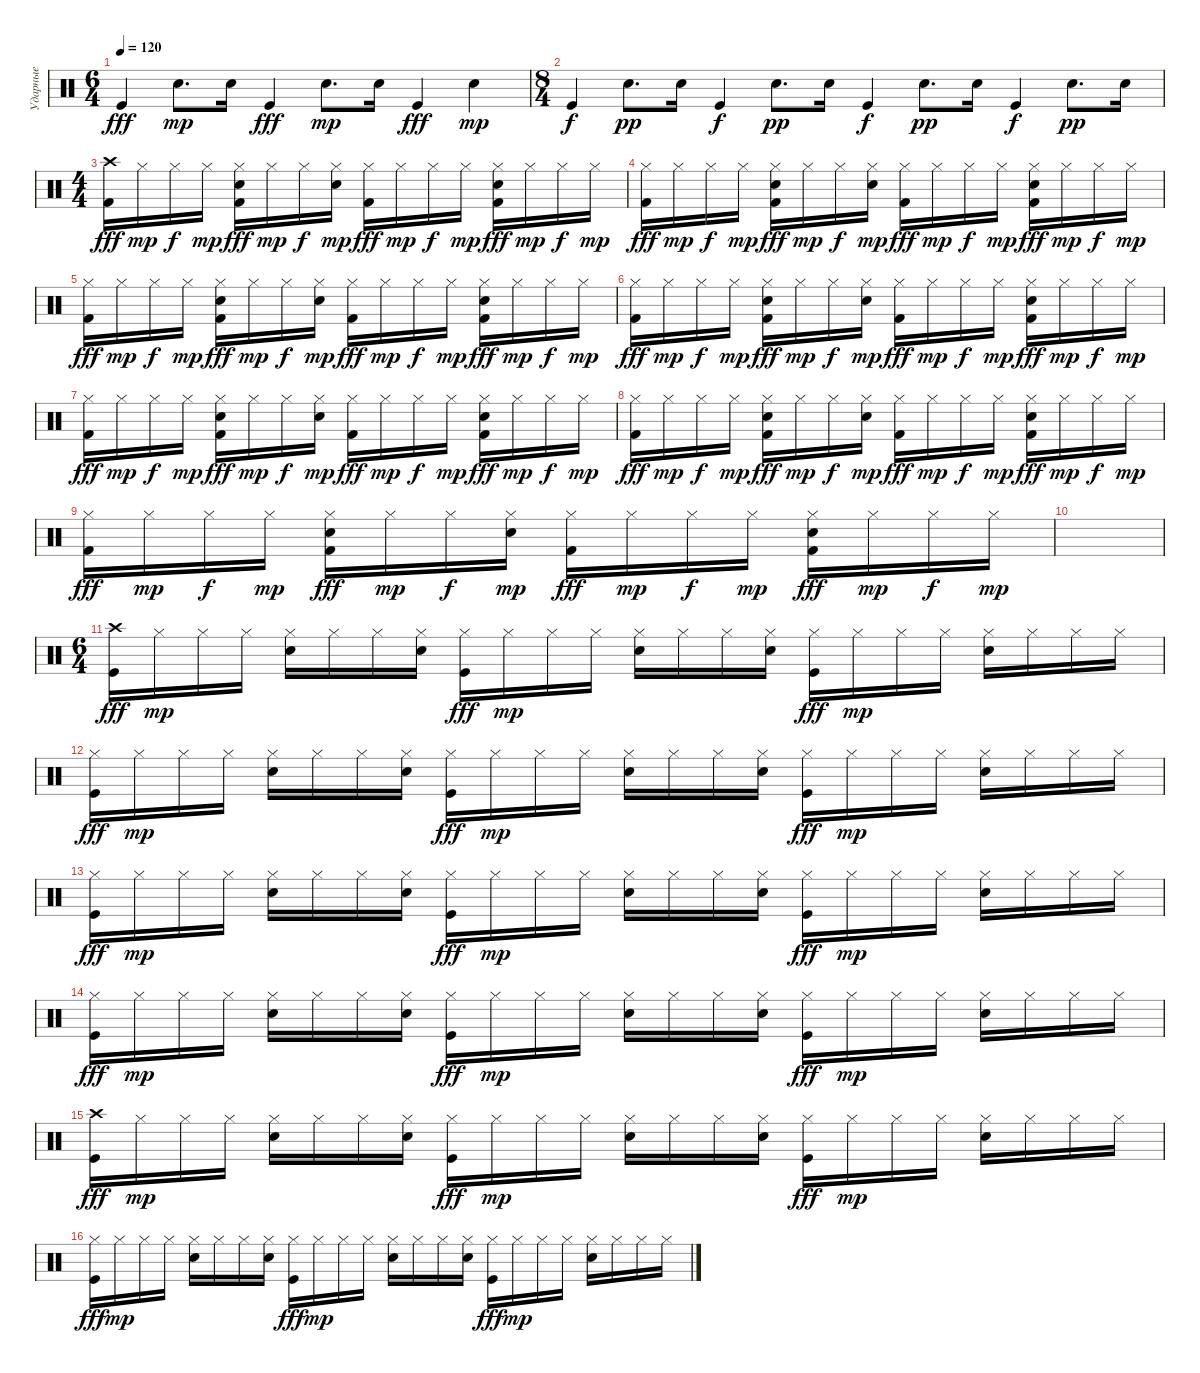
\track ("Ударные" "Ударные") {instrument percussion}
\staff {score}
\articulation defaults
\ts (6 4)
\tempo 120
\clef neutral
\ks c "Kick (hit)".4{dy fff} "Snare (hit) 2".8{d dy mp} "Snare (hit) 2".16 "Kick (hit)".4{dy fff} "Snare (hit) 2".8{d dy mp} "Snare (hit) 2".16 "Kick (hit)".4{dy fff} "Snare (hit) 2".4{dy mp}
|
\ts (8 4)
"Kick (hit)".4{dy f} "Snare (hit) 2".8{d dy pp} "Snare (hit) 2".16 "Kick (hit)".4{dy f} "Snare (hit) 2".8{d dy pp} "Snare (hit) 2".16 "Kick (hit)".4{dy f} "Snare (hit) 2".8{d dy pp} "Snare (hit) 2".16 "Kick (hit)".4{dy f} "Snare (hit) 2".8{d dy pp} "Snare (hit) 2".16 |
\ts (4 4)
("Crash high (hit)" "Kick (hit) 2").16{dy fff} "Hi-Hat (closed)".16{dy mp} "Hi-Hat (closed)".16{dy f} "Hi-Hat (closed)".16{dy mp} ("Hi-Hat (closed)" "Snare (hit) 2" "Kick (hit) 2").16{dy fff} "Hi-Hat (closed)".16{dy mp} "Hi-Hat (closed)".16{dy f} ("Hi-Hat (closed)" "Snare (hit) 2").16{dy mp} ("Hi-Hat (closed)" "Kick (hit) 2").16{dy fff} "Hi-Hat (closed)".16{dy mp} "Hi-Hat (closed)".16{dy f} "Hi-Hat (closed)".16{dy mp} ("Hi-Hat (closed)" "Snare (hit) 2" "Kick (hit) 2").16{dy fff} "Hi-Hat (closed)".16{dy mp} "Hi-Hat (closed)".16{dy f} "Hi-Hat (closed)".16{dy mp} |
("Hi-Hat (closed)" "Kick (hit) 2").16{dy fff} "Hi-Hat (closed)".16{dy mp} "Hi-Hat (closed)".16{dy f} "Hi-Hat (closed)".16{dy mp} ("Hi-Hat (closed)" "Snare (hit) 2" "Kick (hit) 2").16{dy fff} "Hi-Hat (closed)".16{dy mp} "Hi-Hat (closed)".16{dy f} ("Hi-Hat (closed)" "Snare (hit) 2").16{dy mp} ("Hi-Hat (closed)" "Kick (hit) 2").16{dy fff} "Hi-Hat (closed)".16{dy mp} "Hi-Hat (closed)".16{dy f} "Hi-Hat (closed)".16{dy mp} ("Hi-Hat (closed)" "Snare (hit) 2" "Kick (hit) 2").16{dy fff} "Hi-Hat (closed)".16{dy mp} "Hi-Hat (closed)".16{dy f} "Hi-Hat (closed)".16{dy mp} |
("Hi-Hat (closed)" "Kick (hit) 2").16{dy fff} "Hi-Hat (closed)".16{dy mp} "Hi-Hat (closed)".16{dy f} "Hi-Hat (closed)".16{dy mp} ("Hi-Hat (closed)" "Snare (hit) 2" "Kick (hit) 2").16{dy fff} "Hi-Hat (closed)".16{dy mp} "Hi-Hat (closed)".16{dy f} ("Hi-Hat (closed)" "Snare (hit) 2").16{dy mp} ("Hi-Hat (closed)" "Kick (hit) 2").16{dy fff} "Hi-Hat (closed)".16{dy mp} "Hi-Hat (closed)".16{dy f} "Hi-Hat (closed)".16{dy mp} ("Hi-Hat (closed)" "Snare (hit) 2" "Kick (hit) 2").16{dy fff} "Hi-Hat (closed)".16{dy mp} "Hi-Hat (closed)".16{dy f} "Hi-Hat (closed)".16{dy mp} |
("Hi-Hat (closed)" "Kick (hit) 2").16{dy fff} "Hi-Hat (closed)".16{dy mp} "Hi-Hat (closed)".16{dy f} "Hi-Hat (closed)".16{dy mp} ("Hi-Hat (closed)" "Snare (hit) 2" "Kick (hit) 2").16{dy fff} "Hi-Hat (closed)".16{dy mp} "Hi-Hat (closed)".16{dy f} ("Hi-Hat (closed)" "Snare (hit) 2").16{dy mp} ("Hi-Hat (closed)" "Kick (hit) 2").16{dy fff} "Hi-Hat (closed)".16{dy mp} "Hi-Hat (closed)".16{dy f} "Hi-Hat (closed)".16{dy mp} ("Hi-Hat (closed)" "Snare (hit) 2" "Kick (hit) 2").16{dy fff} "Hi-Hat (closed)".16{dy mp} "Hi-Hat (closed)".16{dy f} "Hi-Hat (closed)".16{dy mp} |
("Hi-Hat (closed)" "Kick (hit) 2").16{dy fff} "Hi-Hat (closed)".16{dy mp} "Hi-Hat (closed)".16{dy f} "Hi-Hat (closed)".16{dy mp} ("Hi-Hat (closed)" "Snare (hit) 2" "Kick (hit) 2").16{dy fff} "Hi-Hat (closed)".16{dy mp} "Hi-Hat (closed)".16{dy f} ("Hi-Hat (closed)" "Snare (hit) 2").16{dy mp} ("Hi-Hat (closed)" "Kick (hit) 2").16{dy fff} "Hi-Hat (closed)".16{dy mp} "Hi-Hat (closed)".16{dy f} "Hi-Hat (closed)".16{dy mp} ("Hi-Hat (closed)" "Snare (hit) 2" "Kick (hit) 2").16{dy fff} "Hi-Hat (closed)".16{dy mp} "Hi-Hat (closed)".16{dy f} "Hi-Hat (closed)".16{dy mp} |
("Hi-Hat (closed)" "Kick (hit) 2").16{dy fff} "Hi-Hat (closed)".16{dy mp} "Hi-Hat (closed)".16{dy f} "Hi-Hat (closed)".16{dy mp} ("Hi-Hat (closed)" "Snare (hit) 2" "Kick (hit) 2").16{dy fff} "Hi-Hat (closed)".16{dy mp} "Hi-Hat (closed)".16{dy f} ("Hi-Hat (closed)" "Snare (hit) 2").16{dy mp} ("Hi-Hat (closed)" "Kick (hit) 2").16{dy fff} "Hi-Hat (closed)".16{dy mp} "Hi-Hat (closed)".16{dy f} "Hi-Hat (closed)".16{dy mp} ("Hi-Hat (closed)" "Snare (hit) 2" "Kick (hit) 2").16{dy fff} "Hi-Hat (closed)".16{dy mp} "Hi-Hat (closed)".16{dy f} "Hi-Hat (closed)".16{dy mp} |
("Hi-Hat (closed)" "Kick (hit) 2").16{dy fff} "Hi-Hat (closed)".16{dy mp} "Hi-Hat (closed)".16{dy f} "Hi-Hat (closed)".16{dy mp} ("Hi-Hat (closed)" "Snare (hit) 2" "Kick (hit) 2").16{dy fff} "Hi-Hat (closed)".16{dy mp} "Hi-Hat (closed)".16{dy f} ("Hi-Hat (closed)" "Snare (hit) 2").16{dy mp} ("Hi-Hat (closed)" "Kick (hit) 2").16{dy fff} "Hi-Hat (closed)".16{dy mp} "Hi-Hat (closed)".16{dy f} "Hi-Hat (closed)".16{dy mp} ("Hi-Hat (closed)" "Snare (hit) 2" "Kick (hit) 2").16{dy fff} "Hi-Hat (closed)".16{dy mp} "Hi-Hat (closed)".16{dy f} "Hi-Hat (closed)".16{dy mp} |
|
\ts (6 4)
("Crash high (hit)" "Kick (hit)").16{dy fff} "Hi-Hat (closed)".16{dy mp} "Hi-Hat (closed)".16 "Hi-Hat (closed)".16 ("Hi-Hat (closed)" "Snare (hit) 2").16 "Hi-Hat (closed)".16 "Hi-Hat (closed)".16 ("Hi-Hat (closed)" "Snare (hit) 2").16 ("Hi-Hat (closed)" "Kick (hit)").16{dy fff} "Hi-Hat (closed)".16{dy mp} "Hi-Hat (closed)".16 "Hi-Hat (closed)".16 ("Hi-Hat (closed)" "Snare (hit) 2").16 "Hi-Hat (closed)".16 "Hi-Hat (closed)".16 ("Hi-Hat (closed)" "Snare (hit) 2").16 ("Hi-Hat (closed)" "Kick (hit)").16{dy fff} "Hi-Hat (closed)".16{dy mp} "Hi-Hat (closed)".16 "Hi-Hat (closed)".16 ("Hi-Hat (closed)" "Snare (hit) 2").16 "Hi-Hat (closed)".16 "Hi-Hat (closed)".16 "Hi-Hat (closed)".16 |
("Hi-Hat (closed)" "Kick (hit)").16{dy fff} "Hi-Hat (closed)".16{dy mp} "Hi-Hat (closed)".16 "Hi-Hat (closed)".16 ("Hi-Hat (closed)" "Snare (hit) 2").16 "Hi-Hat (closed)".16 "Hi-Hat (closed)".16 ("Hi-Hat (closed)" "Snare (hit) 2").16 ("Hi-Hat (closed)" "Kick (hit)").16{dy fff} "Hi-Hat (closed)".16{dy mp} "Hi-Hat (closed)".16 "Hi-Hat (closed)".16 ("Hi-Hat (closed)" "Snare (hit) 2").16 "Hi-Hat (closed)".16 "Hi-Hat (closed)".16 ("Hi-Hat (closed)" "Snare (hit) 2").16 ("Hi-Hat (closed)" "Kick (hit)").16{dy fff} "Hi-Hat (closed)".16{dy mp} "Hi-Hat (closed)".16 "Hi-Hat (closed)".16 ("Hi-Hat (closed)" "Snare (hit) 2").16 "Hi-Hat (closed)".16 "Hi-Hat (closed)".16 "Hi-Hat (closed)".16 |
("Hi-Hat (closed)" "Kick (hit)").16{dy fff} "Hi-Hat (closed)".16{dy mp} "Hi-Hat (closed)".16 "Hi-Hat (closed)".16 ("Hi-Hat (closed)" "Snare (hit) 2").16 "Hi-Hat (closed)".16 "Hi-Hat (closed)".16 ("Hi-Hat (closed)" "Snare (hit) 2").16 ("Hi-Hat (closed)" "Kick (hit)").16{dy fff} "Hi-Hat (closed)".16{dy mp} "Hi-Hat (closed)".16 "Hi-Hat (closed)".16 ("Hi-Hat (closed)" "Snare (hit) 2").16 "Hi-Hat (closed)".16 "Hi-Hat (closed)".16 ("Hi-Hat (closed)" "Snare (hit) 2").16 ("Hi-Hat (closed)" "Kick (hit)").16{dy fff} "Hi-Hat (closed)".16{dy mp} "Hi-Hat (closed)".16 "Hi-Hat (closed)".16 ("Hi-Hat (closed)" "Snare (hit) 2").16 "Hi-Hat (closed)".16 "Hi-Hat (closed)".16 "Hi-Hat (closed)".16 |
("Hi-Hat (closed)" "Kick (hit)").16{dy fff} "Hi-Hat (closed)".16{dy mp} "Hi-Hat (closed)".16 "Hi-Hat (closed)".16 ("Hi-Hat (closed)" "Snare (hit) 2").16 "Hi-Hat (closed)".16 "Hi-Hat (closed)".16 ("Hi-Hat (closed)" "Snare (hit) 2").16 ("Hi-Hat (closed)" "Kick (hit)").16{dy fff} "Hi-Hat (closed)".16{dy mp} "Hi-Hat (closed)".16 "Hi-Hat (closed)".16 ("Hi-Hat (closed)" "Snare (hit) 2").16 "Hi-Hat (closed)".16 "Hi-Hat (closed)".16 ("Hi-Hat (closed)" "Snare (hit) 2").16 ("Hi-Hat (closed)" "Kick (hit)").16{dy fff} "Hi-Hat (closed)".16{dy mp} "Hi-Hat (closed)".16 "Hi-Hat (closed)".16 ("Hi-Hat (closed)" "Snare (hit) 2").16 "Hi-Hat (closed)".16 "Hi-Hat (closed)".16 "Hi-Hat (closed)".16 |
("Crash high (hit)" "Kick (hit)").16{dy fff} "Hi-Hat (closed)".16{dy mp} "Hi-Hat (closed)".16 "Hi-Hat (closed)".16 ("Hi-Hat (closed)" "Snare (hit) 2").16 "Hi-Hat (closed)".16 "Hi-Hat (closed)".16 ("Hi-Hat (closed)" "Snare (hit) 2").16 ("Hi-Hat (closed)" "Kick (hit)").16{dy fff} "Hi-Hat (closed)".16{dy mp} "Hi-Hat (closed)".16 "Hi-Hat (closed)".16 ("Hi-Hat (closed)" "Snare (hit) 2").16 "Hi-Hat (closed)".16 "Hi-Hat (closed)".16 ("Hi-Hat (closed)" "Snare (hit) 2").16 ("Hi-Hat (closed)" "Kick (hit)").16{dy fff} "Hi-Hat (closed)".16{dy mp} "Hi-Hat (closed)".16 "Hi-Hat (closed)".16 ("Hi-Hat (closed)" "Snare (hit) 2").16 "Hi-Hat (closed)".16 "Hi-Hat (closed)".16 "Hi-Hat (closed)".16 |
("Hi-Hat (closed)" "Kick (hit)").16{dy fff} "Hi-Hat (closed)".16{dy mp} "Hi-Hat (closed)".16 "Hi-Hat (closed)".16 ("Hi-Hat (closed)" "Snare (hit) 2").16 "Hi-Hat (closed)".16 "Hi-Hat (closed)".16 ("Hi-Hat (closed)" "Snare (hit) 2").16 ("Hi-Hat (closed)" "Kick (hit)").16{dy fff} "Hi-Hat (closed)".16{dy mp} "Hi-Hat (closed)".16 "Hi-Hat (closed)".16 ("Hi-Hat (closed)" "Snare (hit) 2").16 "Hi-Hat (closed)".16 "Hi-Hat (closed)".16 ("Hi-Hat (closed)" "Snare (hit) 2").16 ("Hi-Hat (closed)" "Kick (hit)").16{dy fff} "Hi-Hat (closed)".16{dy mp} "Hi-Hat (closed)".16 "Hi-Hat (closed)".16 ("Hi-Hat (closed)" "Snare (hit) 2").16 "Hi-Hat (closed)".16 "Hi-Hat (closed)".16 "Hi-Hat (closed)".16
